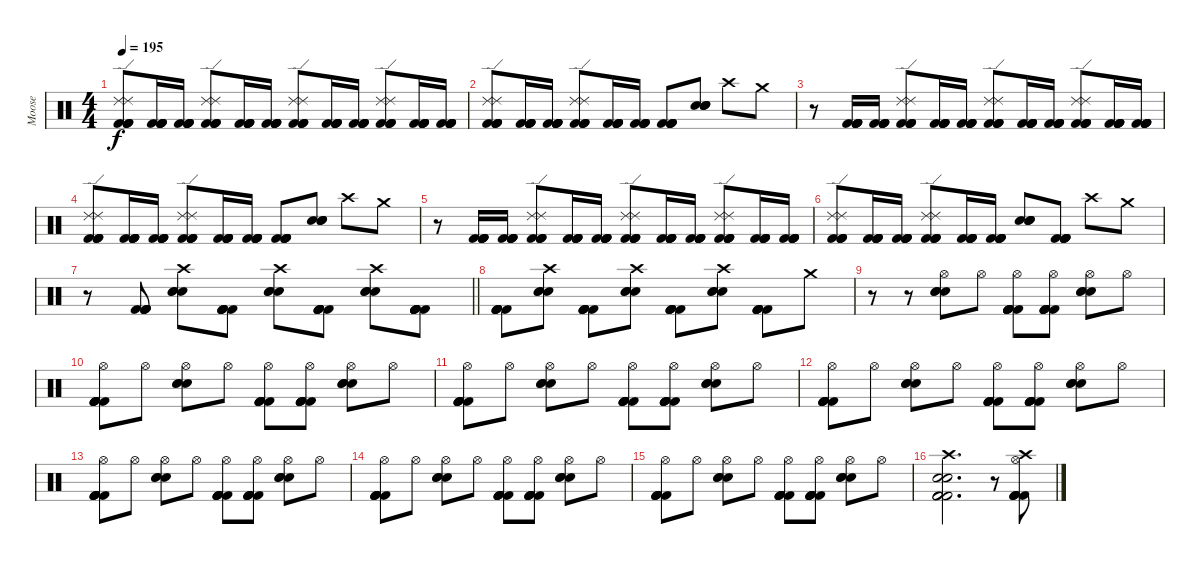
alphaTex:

\track ("Moose" "Moose") {instrument percussion}
\staff {score}
\articulation defaults
\ts (4 4)
\tempo 195
\clef neutral
\ks c
("Kick (hit) 2" "Kick (hit) 2" "Kick (hit) 2" "Kick (hit) 2" "Ride (edge) 2" "Ride (edge) 2").8{dy f} ("Kick (hit) 2" "Kick (hit) 2" "Kick (hit) 2" "Kick (hit) 2" "Kick (hit) 2").16 ("Kick (hit) 2" "Kick (hit) 2" "Kick (hit) 2" "Kick (hit) 2" "Kick (hit) 2").16 ("Kick (hit) 2" "Kick (hit) 2" "Kick (hit) 2" "Kick (hit) 2" "Ride (edge) 2" "Ride (edge) 2").8 ("Kick (hit) 2" "Kick (hit) 2" "Kick (hit) 2" "Kick (hit) 2" "Kick (hit) 2").16 ("Kick (hit) 2" "Kick (hit) 2" "Kick (hit) 2" "Kick (hit) 2" "Kick (hit) 2").16 ("Kick (hit) 2" "Kick (hit) 2" "Kick (hit) 2" "Kick (hit) 2" "Ride (edge) 2" "Ride (edge) 2").8 ("Kick (hit) 2" "Kick (hit) 2" "Kick (hit) 2" "Kick (hit) 2" "Kick (hit) 2").16 ("Kick (hit) 2" "Kick (hit) 2" "Kick (hit) 2" "Kick (hit) 2" "Kick (hit) 2").16 ("Kick (hit) 2" "Kick (hit) 2" "Kick (hit) 2" "Kick (hit) 2" "Ride (edge) 2" "Ride (edge) 2").8 ("Kick (hit) 2" "Kick (hit) 2" "Kick (hit) 2" "Kick (hit) 2" "Kick (hit) 2").16 ("Kick (hit) 2" "Kick (hit) 2" "Kick (hit) 2" "Kick (hit) 2" "Kick (hit) 2").16 |
("Kick (hit) 2" "Kick (hit) 2" "Kick (hit) 2" "Kick (hit) 2" "Ride (edge) 2" "Ride (edge) 2").8 ("Kick (hit) 2" "Kick (hit) 2" "Kick (hit) 2" "Kick (hit) 2" "Kick (hit) 2").16 ("Kick (hit) 2" "Kick (hit) 2" "Kick (hit) 2" "Kick (hit) 2" "Kick (hit) 2").16 ("Kick (hit) 2" "Kick (hit) 2" "Kick (hit) 2" "Kick (hit) 2" "Ride (edge) 2" "Ride (edge) 2").8 ("Kick (hit) 2" "Kick (hit) 2" "Kick (hit) 2" "Kick (hit) 2" "Kick (hit) 2").16 ("Kick (hit) 2" "Kick (hit) 2" "Kick (hit) 2" "Kick (hit) 2" "Kick (hit) 2").16 ("Kick (hit) 2" "Kick (hit) 2" "Kick (hit) 2" "Kick (hit) 2" "Kick (hit) 2").8 ("Electric Snare (hit)" "Electric Snare (hit)" "Electric Snare (hit)" "Electric Snare (hit)").8 "Crash high (hit)".8 "Crash medium (hit)".8 |
r.8 ("Kick (hit) 2" "Kick (hit) 2" "Kick (hit) 2" "Kick (hit) 2" "Kick (hit) 2").16 ("Kick (hit) 2" "Kick (hit) 2" "Kick (hit) 2" "Kick (hit) 2" "Kick (hit) 2").16 ("Kick (hit) 2" "Kick (hit) 2" "Kick (hit) 2" "Kick (hit) 2" "Ride (edge) 2" "Ride (edge) 2").8 ("Kick (hit) 2" "Kick (hit) 2" "Kick (hit) 2" "Kick (hit) 2" "Kick (hit) 2").16 ("Kick (hit) 2" "Kick (hit) 2" "Kick (hit) 2" "Kick (hit) 2" "Kick (hit) 2").16 ("Kick (hit) 2" "Kick (hit) 2" "Kick (hit) 2" "Kick (hit) 2" "Ride (edge) 2" "Ride (edge) 2").8 ("Kick (hit) 2" "Kick (hit) 2" "Kick (hit) 2" "Kick (hit) 2" "Kick (hit) 2").16 ("Kick (hit) 2" "Kick (hit) 2" "Kick (hit) 2" "Kick (hit) 2" "Kick (hit) 2").16 ("Kick (hit) 2" "Kick (hit) 2" "Kick (hit) 2" "Kick (hit) 2" "Ride (edge) 2" "Ride (edge) 2").8 ("Kick (hit) 2" "Kick (hit) 2" "Kick (hit) 2" "Kick (hit) 2" "Kick (hit) 2").16 ("Kick (hit) 2" "Kick (hit) 2" "Kick (hit) 2" "Kick (hit) 2" "Kick (hit) 2").16 |
("Kick (hit) 2" "Kick (hit) 2" "Kick (hit) 2" "Kick (hit) 2" "Ride (edge) 2" "Ride (edge) 2").8 ("Kick (hit) 2" "Kick (hit) 2" "Kick (hit) 2" "Kick (hit) 2" "Kick (hit) 2").16 ("Kick (hit) 2" "Kick (hit) 2" "Kick (hit) 2" "Kick (hit) 2" "Kick (hit) 2").16 ("Kick (hit) 2" "Kick (hit) 2" "Kick (hit) 2" "Kick (hit) 2" "Ride (edge) 2" "Ride (edge) 2").8 ("Kick (hit) 2" "Kick (hit) 2" "Kick (hit) 2" "Kick (hit) 2" "Kick (hit) 2").16 ("Kick (hit) 2" "Kick (hit) 2" "Kick (hit) 2" "Kick (hit) 2" "Kick (hit) 2").16 ("Kick (hit) 2" "Kick (hit) 2" "Kick (hit) 2" "Kick (hit) 2" "Kick (hit) 2").8 ("Electric Snare (hit)" "Electric Snare (hit)" "Electric Snare (hit)" "Electric Snare (hit)").8 "Crash high (hit)".8 "Crash medium (hit)".8 |
r.8 ("Kick (hit) 2" "Kick (hit) 2" "Kick (hit) 2" "Kick (hit) 2" "Kick (hit) 2").16 ("Kick (hit) 2" "Kick (hit) 2" "Kick (hit) 2" "Kick (hit) 2" "Kick (hit) 2").16 ("Kick (hit) 2" "Kick (hit) 2" "Kick (hit) 2" "Kick (hit) 2" "Ride (edge) 2" "Ride (edge) 2").8 ("Kick (hit) 2" "Kick (hit) 2" "Kick (hit) 2" "Kick (hit) 2" "Kick (hit) 2").16 ("Kick (hit) 2" "Kick (hit) 2" "Kick (hit) 2" "Kick (hit) 2" "Kick (hit) 2").16 ("Kick (hit) 2" "Kick (hit) 2" "Kick (hit) 2" "Kick (hit) 2" "Ride (edge) 2" "Ride (edge) 2").8 ("Kick (hit) 2" "Kick (hit) 2" "Kick (hit) 2" "Kick (hit) 2" "Kick (hit) 2").16 ("Kick (hit) 2" "Kick (hit) 2" "Kick (hit) 2" "Kick (hit) 2" "Kick (hit) 2").16 ("Kick (hit) 2" "Kick (hit) 2" "Kick (hit) 2" "Kick (hit) 2" "Ride (edge) 2" "Ride (edge) 2").8 ("Kick (hit) 2" "Kick (hit) 2" "Kick (hit) 2" "Kick (hit) 2" "Kick (hit) 2").16 ("Kick (hit) 2" "Kick (hit) 2" "Kick (hit) 2" "Kick (hit) 2" "Kick (hit) 2").16 |
("Kick (hit) 2" "Kick (hit) 2" "Kick (hit) 2" "Kick (hit) 2" "Ride (edge) 2" "Ride (edge) 2").8 ("Kick (hit) 2" "Kick (hit) 2" "Kick (hit) 2" "Kick (hit) 2" "Kick (hit) 2").16 ("Kick (hit) 2" "Kick (hit) 2" "Kick (hit) 2" "Kick (hit) 2" "Kick (hit) 2").16 ("Kick (hit) 2" "Kick (hit) 2" "Kick (hit) 2" "Kick (hit) 2" "Ride (edge) 2" "Ride (edge) 2").8 ("Kick (hit) 2" "Kick (hit) 2" "Kick (hit) 2" "Kick (hit) 2" "Kick (hit) 2").16 ("Kick (hit) 2" "Kick (hit) 2" "Kick (hit) 2" "Kick (hit) 2" "Kick (hit) 2").16 ("Electric Snare (hit)" "Electric Snare (hit)" "Electric Snare (hit)" "Electric Snare (hit)").8 ("Kick (hit) 2" "Kick (hit) 2" "Kick (hit) 2" "Kick (hit) 2" "Kick (hit) 2").8 "Crash high (hit)".8 "Crash medium (hit)".8 |
\barLineRight lightlight
r.8 ("Kick (hit) 2" "Kick (hit) 2" "Kick (hit) 2" "Kick (hit) 2" "Kick (hit) 2").8 ("Electric Snare (hit)" "Electric Snare (hit)" "Electric Snare (hit)" "Crash high (hit)").8 ("Kick (hit) 2" "Kick (hit) 2" "Kick (hit) 2" "Kick (hit) 2" "Kick (hit) 2").8 ("Electric Snare (hit)" "Electric Snare (hit)" "Electric Snare (hit)" "Crash high (hit)").8 ("Kick (hit) 2" "Kick (hit) 2" "Kick (hit) 2" "Kick (hit) 2" "Kick (hit) 2").8 ("Electric Snare (hit)" "Electric Snare (hit)" "Electric Snare (hit)" "Crash high (hit)").8 ("Kick (hit) 2" "Kick (hit) 2" "Kick (hit) 2" "Kick (hit) 2" "Kick (hit) 2").8 |
("Kick (hit) 2" "Kick (hit) 2" "Kick (hit) 2" "Kick (hit) 2" "Kick (hit) 2").8 ("Electric Snare (hit)" "Electric Snare (hit)" "Electric Snare (hit)" "Crash high (hit)").8 ("Kick (hit) 2" "Kick (hit) 2" "Kick (hit) 2" "Kick (hit) 2" "Kick (hit) 2").8 ("Electric Snare (hit)" "Electric Snare (hit)" "Electric Snare (hit)" "Crash high (hit)").8 ("Kick (hit) 2" "Kick (hit) 2" "Kick (hit) 2" "Kick (hit) 2" "Kick (hit) 2").8 ("Electric Snare (hit)" "Electric Snare (hit)" "Electric Snare (hit)" "Crash high (hit)").8 ("Kick (hit) 2" "Kick (hit) 2" "Kick (hit) 2" "Kick (hit) 2" "Kick (hit) 2").8 "Crash medium (hit)".8 |
r.8 r.8 ("Electric Snare (hit)" "Electric Snare (hit)" "Electric Snare (hit)" "Hi-Hat (open)").8 "Hi-Hat (open)".8 ("Kick (hit) 2" "Kick (hit) 2" "Kick (hit) 2" "Kick (hit) 2" "Kick (hit) 2" "Hi-Hat (open)").8 ("Kick (hit) 2" "Kick (hit) 2" "Kick (hit) 2" "Kick (hit) 2" "Kick (hit) 2" "Hi-Hat (open)").8 ("Electric Snare (hit)" "Electric Snare (hit)" "Electric Snare (hit)" "Hi-Hat (open)").8 "Hi-Hat (open)".8 |
("Kick (hit) 2" "Kick (hit) 2" "Kick (hit) 2" "Kick (hit) 2" "Kick (hit) 2" "Hi-Hat (open)").8 "Hi-Hat (open)".8 ("Electric Snare (hit)" "Electric Snare (hit)" "Electric Snare (hit)" "Hi-Hat (open)").8 "Hi-Hat (open)".8 ("Kick (hit) 2" "Kick (hit) 2" "Kick (hit) 2" "Kick (hit) 2" "Kick (hit) 2" "Hi-Hat (open)").8 ("Kick (hit) 2" "Kick (hit) 2" "Kick (hit) 2" "Kick (hit) 2" "Kick (hit) 2" "Hi-Hat (open)").8 ("Electric Snare (hit)" "Electric Snare (hit)" "Electric Snare (hit)" "Hi-Hat (open)").8 "Hi-Hat (open)".8 |
("Kick (hit) 2" "Kick (hit) 2" "Kick (hit) 2" "Kick (hit) 2" "Kick (hit) 2" "Hi-Hat (open)").8 "Hi-Hat (open)".8 ("Electric Snare (hit)" "Electric Snare (hit)" "Electric Snare (hit)" "Hi-Hat (open)").8 "Hi-Hat (open)".8 ("Kick (hit) 2" "Kick (hit) 2" "Kick (hit) 2" "Kick (hit) 2" "Kick (hit) 2" "Hi-Hat (open)").8 ("Kick (hit) 2" "Kick (hit) 2" "Kick (hit) 2" "Kick (hit) 2" "Kick (hit) 2" "Hi-Hat (open)").8 ("Electric Snare (hit)" "Electric Snare (hit)" "Electric Snare (hit)" "Hi-Hat (open)").8 "Hi-Hat (open)".8 |
("Kick (hit) 2" "Kick (hit) 2" "Kick (hit) 2" "Kick (hit) 2" "Kick (hit) 2" "Hi-Hat (open)").8 "Hi-Hat (open)".8 ("Electric Snare (hit)" "Electric Snare (hit)" "Electric Snare (hit)" "Hi-Hat (open)").8 "Hi-Hat (open)".8 ("Kick (hit) 2" "Kick (hit) 2" "Kick (hit) 2" "Kick (hit) 2" "Kick (hit) 2" "Hi-Hat (open)").8 ("Kick (hit) 2" "Kick (hit) 2" "Kick (hit) 2" "Kick (hit) 2" "Kick (hit) 2" "Hi-Hat (open)").8 ("Electric Snare (hit)" "Electric Snare (hit)" "Electric Snare (hit)" "Hi-Hat (open)").8 "Hi-Hat (open)".8 |
("Kick (hit) 2" "Kick (hit) 2" "Kick (hit) 2" "Kick (hit) 2" "Kick (hit) 2" "Hi-Hat (open)").8 "Hi-Hat (open)".8 ("Electric Snare (hit)" "Electric Snare (hit)" "Electric Snare (hit)" "Hi-Hat (open)").8 "Hi-Hat (open)".8 ("Kick (hit) 2" "Kick (hit) 2" "Kick (hit) 2" "Kick (hit) 2" "Kick (hit) 2" "Hi-Hat (open)").8 ("Kick (hit) 2" "Kick (hit) 2" "Kick (hit) 2" "Kick (hit) 2" "Kick (hit) 2" "Hi-Hat (open)").8 ("Electric Snare (hit)" "Electric Snare (hit)" "Electric Snare (hit)" "Hi-Hat (open)").8 "Hi-Hat (open)".8 |
("Kick (hit) 2" "Kick (hit) 2" "Kick (hit) 2" "Kick (hit) 2" "Kick (hit) 2" "Hi-Hat (open)").8 "Hi-Hat (open)".8 ("Electric Snare (hit)" "Electric Snare (hit)" "Electric Snare (hit)" "Hi-Hat (open)").8 "Hi-Hat (open)".8 ("Kick (hit) 2" "Kick (hit) 2" "Kick (hit) 2" "Kick (hit) 2" "Kick (hit) 2" "Hi-Hat (open)").8 ("Kick (hit) 2" "Kick (hit) 2" "Kick (hit) 2" "Kick (hit) 2" "Kick (hit) 2" "Hi-Hat (open)").8 ("Electric Snare (hit)" "Electric Snare (hit)" "Electric Snare (hit)" "Hi-Hat (open)").8 "Hi-Hat (open)".8 |
("Kick (hit) 2" "Kick (hit) 2" "Kick (hit) 2" "Kick (hit) 2" "Kick (hit) 2" "Hi-Hat (open)").8 "Hi-Hat (open)".8 ("Electric Snare (hit)" "Electric Snare (hit)" "Electric Snare (hit)" "Hi-Hat (open)").8 "Hi-Hat (open)".8 ("Kick (hit) 2" "Kick (hit) 2" "Kick (hit) 2" "Kick (hit) 2" "Kick (hit) 2" "Hi-Hat (open)").8 ("Kick (hit) 2" "Kick (hit) 2" "Kick (hit) 2" "Kick (hit) 2" "Kick (hit) 2" "Hi-Hat (open)").8 ("Electric Snare (hit)" "Electric Snare (hit)" "Electric Snare (hit)" "Hi-Hat (open)").8 "Hi-Hat (open)".8 |
("Kick (hit) 2" "Kick (hit) 2" "Kick (hit) 2" "Electric Snare (hit)" "Electric Snare (hit)" "Crash high (hit)").2{d} r.8 ("Kick (hit) 2" "Kick (hit) 2" "Kick (hit) 2" "Kick (hit) 2" "Crash high (hit)" "Hi-Hat (open)").8
